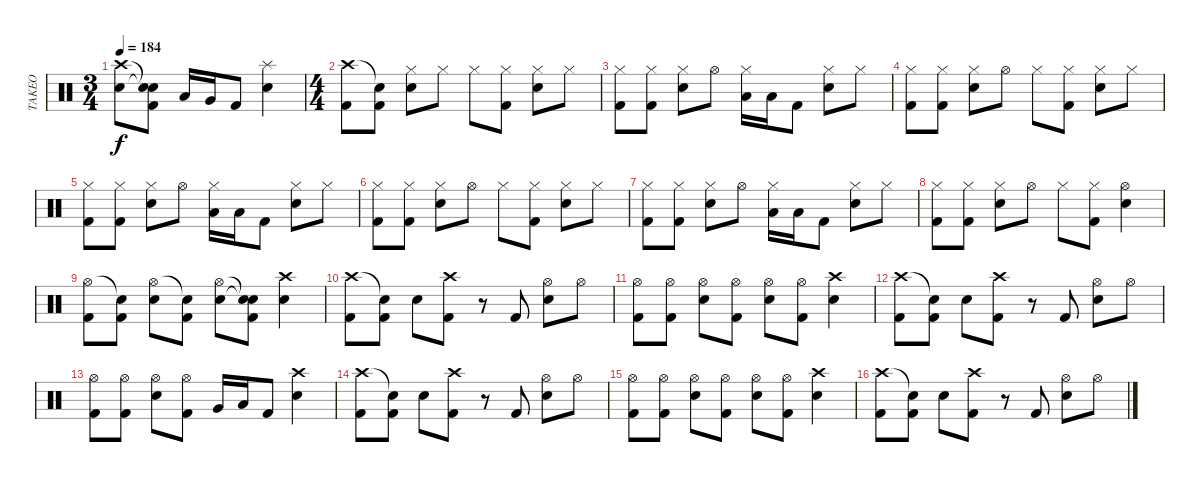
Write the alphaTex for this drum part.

\track ("TAKEO" "TAKEO") {instrument percussion}
\staff {score}
\articulation defaults
\ts (3 4)
\tempo 184
\clef neutral
\ks c
("Crash high (hit)" "Electric Snare (hit)").8{dy f} ("Snare (hit)"{t} "Snare (hit)"{t} "Kick (hit) 2").8 "Low Floor Tom (hit)".16 "Very Low Tom (hit)".16 "Kick (hit) 2".8 ("Splash (hit)" "Electric Snare (hit)").4 |
\ts (4 4)
("Crash high (hit)" "Kick (hit) 2").8 ("Snare (hit)"{t} "Kick (hit) 2").8 ("Hi-Hat (closed)" "Electric Snare (hit)").8 "Hi-Hat (closed)".8 "Hi-Hat (closed)".8 ("Hi-Hat (closed)" "Kick (hit) 2").8 ("Hi-Hat (closed)" "Electric Snare (hit)").8 "Hi-Hat (closed)".8 |
("Hi-Hat (closed)" "Kick (hit) 2").8 ("Hi-Hat (closed)" "Kick (hit) 2").8 ("Hi-Hat (closed)" "Electric Snare (hit)").8 "Hi-Hat (open)".8 ("Hi-Hat (closed)" "Low Tom (hit)").16 "Low Tom (hit)".16 "Kick (hit) 2".8 ("Hi-Hat (closed)" "Electric Snare (hit)").8 "Hi-Hat (closed)".8 |
("Hi-Hat (closed)" "Kick (hit) 2").8 ("Hi-Hat (closed)" "Kick (hit) 2").8 ("Hi-Hat (closed)" "Electric Snare (hit)").8 "Hi-Hat (open)".8 "Hi-Hat (closed)".8 ("Hi-Hat (closed)" "Kick (hit) 2").8 ("Hi-Hat (closed)" "Electric Snare (hit)").8 "Hi-Hat (closed)".8 |
("Hi-Hat (closed)" "Kick (hit) 2").8 ("Hi-Hat (closed)" "Kick (hit) 2").8 ("Hi-Hat (closed)" "Electric Snare (hit)").8 "Hi-Hat (open)".8 ("Hi-Hat (closed)" "Low Tom (hit)").16 "Low Tom (hit)".16 "Kick (hit) 2".8 ("Hi-Hat (closed)" "Electric Snare (hit)").8 "Hi-Hat (closed)".8 |
("Hi-Hat (closed)" "Kick (hit) 2").8 ("Hi-Hat (closed)" "Kick (hit) 2").8 ("Hi-Hat (closed)" "Electric Snare (hit)").8 "Hi-Hat (open)".8 "Hi-Hat (closed)".8 ("Hi-Hat (closed)" "Kick (hit) 2").8 ("Hi-Hat (closed)" "Electric Snare (hit)").8 "Hi-Hat (closed)".8 |
("Hi-Hat (closed)" "Kick (hit) 2").8 ("Hi-Hat (closed)" "Kick (hit) 2").8 ("Hi-Hat (closed)" "Electric Snare (hit)").8 "Hi-Hat (open)".8 ("Hi-Hat (closed)" "Low Tom (hit)").16 "Low Tom (hit)".16 "Kick (hit) 2".8 ("Hi-Hat (closed)" "Electric Snare (hit)").8 "Hi-Hat (closed)".8 |
("Hi-Hat (closed)" "Kick (hit) 2").8 ("Hi-Hat (closed)" "Kick (hit) 2").8 ("Hi-Hat (closed)" "Electric Snare (hit)").8 "Hi-Hat (open)".8 "Hi-Hat (closed)".8 ("Hi-Hat (closed)" "Kick (hit) 2").8 ("Hi-Hat (open)" "Electric Snare (hit)").4 |
("Hi-Hat (open)" "Kick (hit) 2").8 ("Snare (hit)"{t} "Kick (hit) 2").8 ("Hi-Hat (open)" "Electric Snare (hit)").8 ("Snare (hit)"{t} "Kick (hit) 2").8 ("Hi-Hat (open)" "Electric Snare (hit)").8 ("Snare (hit)"{t} "Snare (hit)"{t} "Kick (hit) 2").8 ("Crash high (hit)" "Electric Snare (hit)").4 |
("Crash high (hit)" "Kick (hit) 2").8 ("Snare (hit)"{t} "Kick (hit) 2").8 "Electric Snare (hit)".8 ("Crash high (hit)" "Kick (hit) 2").8 r.8 "Kick (hit) 2".8 ("Hi-Hat (open)" "Electric Snare (hit)").8 "Hi-Hat (open)".8 |
("Hi-Hat (open)" "Kick (hit) 2").8 ("Hi-Hat (open)" "Kick (hit) 2").8 ("Hi-Hat (open)" "Electric Snare (hit)").8 ("Hi-Hat (open)" "Kick (hit) 2").8 ("Hi-Hat (open)" "Electric Snare (hit)").8 ("Hi-Hat (open)" "Kick (hit) 2").8 ("Crash high (hit)" "Electric Snare (hit)").4 |
("Crash high (hit)" "Kick (hit) 2").8 ("Snare (hit)"{t} "Kick (hit) 2").8 "Electric Snare (hit)".8 ("Crash high (hit)" "Kick (hit) 2").8 r.8 "Kick (hit) 2".8 ("Hi-Hat (open)" "Electric Snare (hit)").8 "Hi-Hat (open)".8 |
("Hi-Hat (open)" "Kick (hit) 2").8 ("Hi-Hat (open)" "Kick (hit) 2").8 ("Hi-Hat (open)" "Electric Snare (hit)").8 ("Hi-Hat (open)" "Kick (hit) 2").8 "Very Low Tom (hit)".16 "Low Tom (hit)".16 "Kick (hit) 2".8 ("Crash high (hit)" "Electric Snare (hit)").4 |
("Crash high (hit)" "Kick (hit) 2").8 ("Snare (hit)"{t} "Kick (hit) 2").8 "Electric Snare (hit)".8 ("Crash high (hit)" "Kick (hit) 2").8 r.8 "Kick (hit) 2".8 ("Hi-Hat (open)" "Electric Snare (hit)").8 "Hi-Hat (open)".8 |
("Hi-Hat (open)" "Kick (hit) 2").8 ("Hi-Hat (open)" "Kick (hit) 2").8 ("Hi-Hat (open)" "Electric Snare (hit)").8 ("Hi-Hat (open)" "Kick (hit) 2").8 ("Hi-Hat (open)" "Electric Snare (hit)").8 ("Hi-Hat (open)" "Kick (hit) 2").8 ("Crash high (hit)" "Electric Snare (hit)").4 |
("Crash high (hit)" "Kick (hit) 2").8 ("Snare (hit)"{t} "Kick (hit) 2").8 "Electric Snare (hit)".8 ("Crash high (hit)" "Kick (hit) 2").8 r.8 "Kick (hit) 2".8 ("Hi-Hat (open)" "Electric Snare (hit)").8 "Hi-Hat (open)".8
